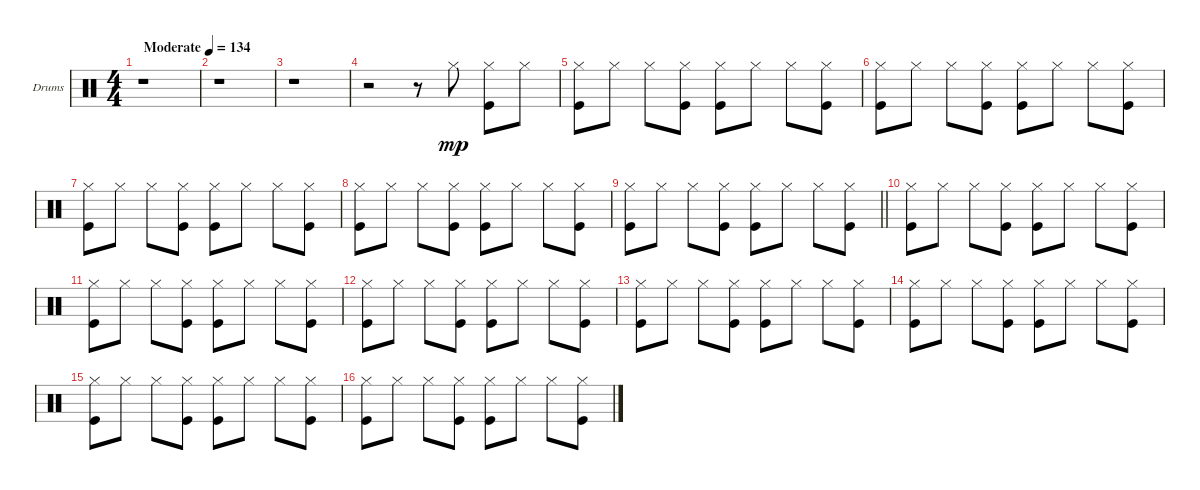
\bracketExtendMode groupsimilarinstruments
\firstSystemTrackNameOrientation horizontal
\otherSystemsTrackNameOrientation horizontal
\track ("Drumkit" "Drums") {instrument percussion}
\staff {score}
\articulation defaults
\ts (4 4)
\beaming (8 2 2 2 2)
\scale
0.21638
\tempo (134 "Moderate")
\accidentals auto
\clef neutral
\ottava regular
\simile none
\ks c
r.1{dy mp} |
\scale
0.352882 r.1 |
\scale
0.205258 r.1 |
\scale
0.22548 r.2 r.8 "Hi-Hat (closed)".8 ("Kick (hit)" "Hi-Hat (closed)").8 "Hi-Hat (closed)".8 |
\scale
0.186823 ("Kick (hit)" "Hi-Hat (closed)").8 "Hi-Hat (closed)".8 "Hi-Hat (closed)".8 ("Kick (hit)" "Hi-Hat (closed)").8 ("Kick (hit)" "Hi-Hat (closed)").8 "Hi-Hat (closed)".8 "Hi-Hat (closed)".8 ("Hi-Hat (closed)" "Kick (hit)").8 |
\scale
0.266245 ("Kick (hit)" "Hi-Hat (closed)").8 "Hi-Hat (closed)".8 "Hi-Hat (closed)".8 ("Kick (hit)" "Hi-Hat (closed)").8 ("Kick (hit)" "Hi-Hat (closed)").8 "Hi-Hat (closed)".8 "Hi-Hat (closed)".8 ("Hi-Hat (closed)" "Kick (hit)").8 |
\scale
0.273466 ("Kick (hit)" "Hi-Hat (closed)").8 "Hi-Hat (closed)".8 "Hi-Hat (closed)".8 ("Kick (hit)" "Hi-Hat (closed)").8 ("Kick (hit)" "Hi-Hat (closed)").8 "Hi-Hat (closed)".8 "Hi-Hat (closed)".8 ("Hi-Hat (closed)" "Kick (hit)").8 |
\scale
0.273466 ("Kick (hit)" "Hi-Hat (closed)").8 "Hi-Hat (closed)".8 "Hi-Hat (closed)".8 ("Kick (hit)" "Hi-Hat (closed)").8 ("Kick (hit)" "Hi-Hat (closed)").8 "Hi-Hat (closed)".8 "Hi-Hat (closed)".8 ("Hi-Hat (closed)" "Kick (hit)").8 |
\scale
0.272011
\barLineRight lightlight
("Kick (hit)" "Hi-Hat (closed)").8 "Hi-Hat (closed)".8 "Hi-Hat (closed)".8 ("Kick (hit)" "Hi-Hat (closed)").8 ("Kick (hit)" "Hi-Hat (closed)").8 "Hi-Hat (closed)".8 "Hi-Hat (closed)".8 ("Hi-Hat (closed)" "Kick (hit)").8 |
\scale
0.245729 ("Kick (hit)" "Hi-Hat (closed)").8 "Hi-Hat (closed)".8 "Hi-Hat (closed)".8 ("Kick (hit)" "Hi-Hat (closed)").8 ("Kick (hit)" "Hi-Hat (closed)").8 "Hi-Hat (closed)".8 "Hi-Hat (closed)".8 ("Hi-Hat (closed)" "Kick (hit)").8 |
\scale
0.236531 ("Kick (hit)" "Hi-Hat (closed)").8 "Hi-Hat (closed)".8 "Hi-Hat (closed)".8 ("Kick (hit)" "Hi-Hat (closed)").8 ("Kick (hit)" "Hi-Hat (closed)").8 "Hi-Hat (closed)".8 "Hi-Hat (closed)".8 ("Hi-Hat (closed)" "Kick (hit)").8 |
\scale
0.245729 ("Kick (hit)" "Hi-Hat (closed)").8 "Hi-Hat (closed)".8 "Hi-Hat (closed)".8 ("Kick (hit)" "Hi-Hat (closed)").8 ("Kick (hit)" "Hi-Hat (closed)").8 "Hi-Hat (closed)".8 "Hi-Hat (closed)".8 ("Hi-Hat (closed)" "Kick (hit)").8 |
\scale
0.245232 ("Kick (hit)" "Hi-Hat (closed)").8 "Hi-Hat (closed)".8 "Hi-Hat (closed)".8 ("Kick (hit)" "Hi-Hat (closed)").8 ("Kick (hit)" "Hi-Hat (closed)").8 "Hi-Hat (closed)".8 "Hi-Hat (closed)".8 ("Hi-Hat (closed)" "Kick (hit)").8 |
\scale
0.254768 ("Kick (hit)" "Hi-Hat (closed)").8 "Hi-Hat (closed)".8 "Hi-Hat (closed)".8 ("Kick (hit)" "Hi-Hat (closed)").8 ("Kick (hit)" "Hi-Hat (closed)").8 "Hi-Hat (closed)".8 "Hi-Hat (closed)".8 ("Hi-Hat (closed)" "Kick (hit)").8 |
\scale
0.245232 ("Kick (hit)" "Hi-Hat (closed)").8 "Hi-Hat (closed)".8 "Hi-Hat (closed)".8 ("Kick (hit)" "Hi-Hat (closed)").8 ("Kick (hit)" "Hi-Hat (closed)").8 "Hi-Hat (closed)".8 "Hi-Hat (closed)".8 ("Hi-Hat (closed)" "Kick (hit)").8 |
\scale
0.254768 ("Kick (hit)" "Hi-Hat (closed)").8 "Hi-Hat (closed)".8 "Hi-Hat (closed)".8 ("Kick (hit)" "Hi-Hat (closed)").8 ("Kick (hit)" "Hi-Hat (closed)").8 "Hi-Hat (closed)".8 "Hi-Hat (closed)".8 ("Hi-Hat (closed)" "Kick (hit)").8
